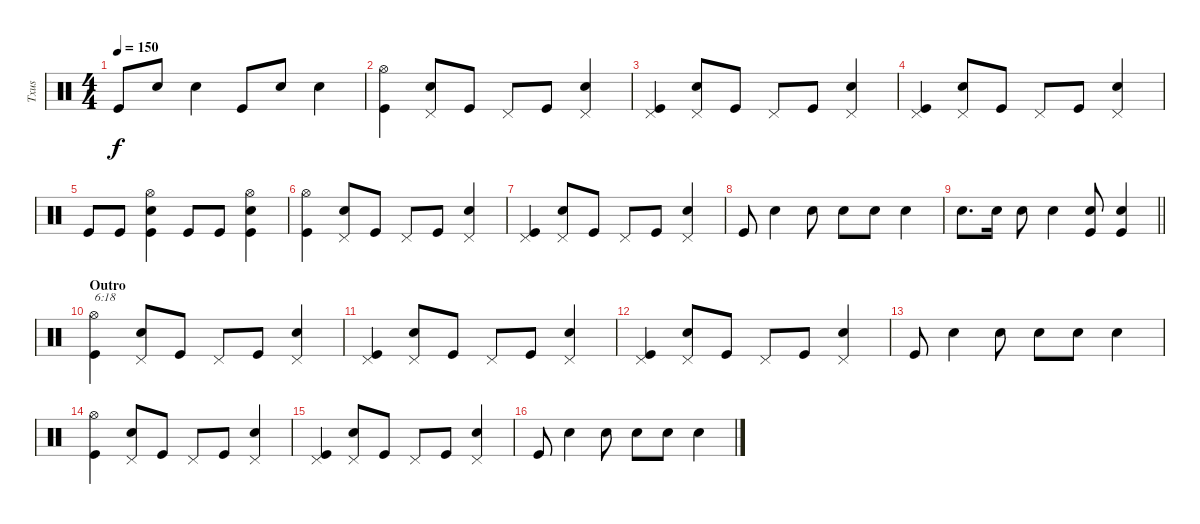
\track ("Txus" "Txus") {instrument percussion}
\staff {score}
\articulation defaults
\ts (4 4)
\tempo 150
\clef neutral
\ks c "Kick (hit)".8{dy f} "Snare (hit) 2".8 "Snare (hit) 2".4 "Kick (hit)".8 "Snare (hit) 2".8 "Snare (hit) 2".4
|
("Kick (hit)" "Hi-Hat (open)").4 ("Snare (hit) 2" "Pedal Hi-Hat (hit)").8 "Kick (hit)".8 "Pedal Hi-Hat (hit)".8 "Kick (hit)".8 ("Snare (hit) 2" "Pedal Hi-Hat (hit)").4 |
("Kick (hit)" "Pedal Hi-Hat (hit)").4 ("Snare (hit) 2" "Pedal Hi-Hat (hit)").8 "Kick (hit)".8 "Pedal Hi-Hat (hit)".8 "Kick (hit)".8 ("Snare (hit) 2" "Pedal Hi-Hat (hit)").4 |
("Kick (hit)" "Pedal Hi-Hat (hit)").4 ("Snare (hit) 2" "Pedal Hi-Hat (hit)").8 "Kick (hit)".8 "Pedal Hi-Hat (hit)".8 "Kick (hit)".8 ("Snare (hit) 2" "Pedal Hi-Hat (hit)").4 |
"Kick (hit)".8 "Kick (hit)".8 ("Kick (hit)" "Snare (hit) 2" "Hi-Hat (open)").4 "Kick (hit)".8 "Kick (hit)".8 ("Kick (hit)" "Snare (hit) 2" "Hi-Hat (open)").4 |
("Kick (hit)" "Hi-Hat (open)").4 ("Snare (hit) 2" "Pedal Hi-Hat (hit)").8 "Kick (hit)".8 "Pedal Hi-Hat (hit)".8 "Kick (hit)".8 ("Snare (hit) 2" "Pedal Hi-Hat (hit)").4 |
("Kick (hit)" "Pedal Hi-Hat (hit)").4 ("Snare (hit) 2" "Pedal Hi-Hat (hit)").8 "Kick (hit)".8 "Pedal Hi-Hat (hit)".8 "Kick (hit)".8 ("Snare (hit) 2" "Pedal Hi-Hat (hit)").4 |
"Kick (hit)".8 "Snare (hit) 2".4 "Snare (hit) 2".8 "Snare (hit) 2".8 "Snare (hit) 2".8 "Snare (hit) 2".4 |
\barLineRight lightlight "Snare (hit) 2".8{d} "Snare (hit) 2".16 "Snare (hit) 2".8 "Snare (hit) 2".4
("Kick (hit)" "Snare (hit) 2").8 ("Kick (hit)" "Snare (hit) 2").4 |
\section ("" "Outro")
("Kick (hit)" "Hi-Hat (open)").4{txt "6:18"} ("Snare (hit) 2" "Pedal Hi-Hat (hit)").8 "Kick (hit)".8 "Pedal Hi-Hat (hit)".8 "Kick (hit)".8 ("Snare (hit) 2" "Pedal Hi-Hat (hit)").4 |
("Kick (hit)" "Pedal Hi-Hat (hit)").4 ("Snare (hit) 2" "Pedal Hi-Hat (hit)").8 "Kick (hit)".8 "Pedal Hi-Hat (hit)".8 "Kick (hit)".8 ("Snare (hit) 2" "Pedal Hi-Hat (hit)").4 |
("Kick (hit)" "Pedal Hi-Hat (hit)").4 ("Snare (hit) 2" "Pedal Hi-Hat (hit)").8 "Kick (hit)".8 "Pedal Hi-Hat (hit)".8 "Kick (hit)".8 ("Snare (hit) 2" "Pedal Hi-Hat (hit)").4 |
"Kick (hit)".8 "Snare (hit) 2".4 "Snare (hit) 2".8 "Snare (hit) 2".8 "Snare (hit) 2".8 "Snare (hit) 2".4 |
("Kick (hit)" "Hi-Hat (open)").4 ("Snare (hit) 2" "Pedal Hi-Hat (hit)").8 "Kick (hit)".8 "Pedal Hi-Hat (hit)".8 "Kick (hit)".8 ("Snare (hit) 2" "Pedal Hi-Hat (hit)").4 |
("Kick (hit)" "Pedal Hi-Hat (hit)").4 ("Snare (hit) 2" "Pedal Hi-Hat (hit)").8 "Kick (hit)".8 "Pedal Hi-Hat (hit)".8 "Kick (hit)".8 ("Snare (hit) 2" "Pedal Hi-Hat (hit)").4 |
"Kick (hit)".8 "Snare (hit) 2".4 "Snare (hit) 2".8 "Snare (hit) 2".8 "Snare (hit) 2".8 "Snare (hit) 2".4
